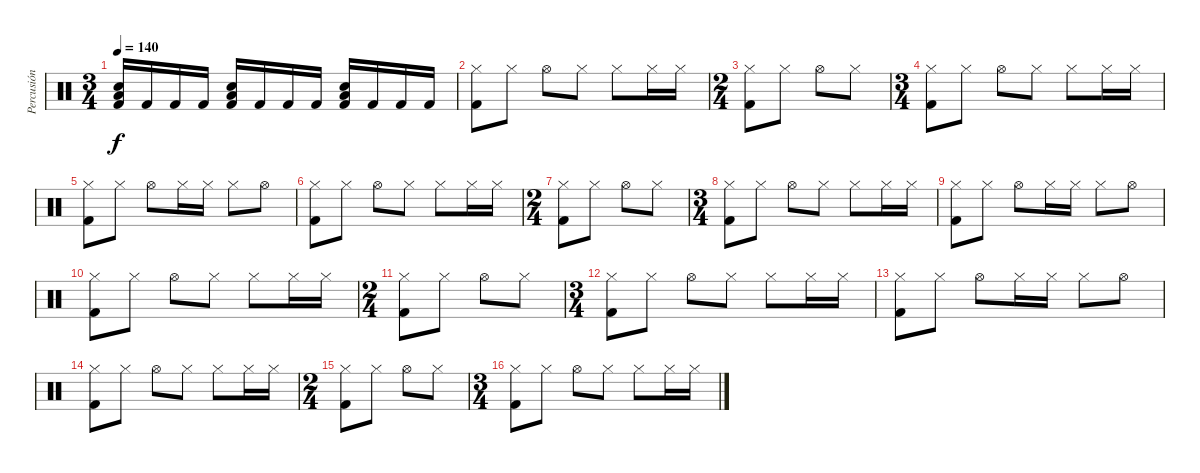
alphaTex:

\track ("Percusión" "Percusión") {instrument percussion}
\staff {score}
\articulation defaults
\ts (3 4)
\tempo 140
\clef neutral
\ks c
("Low Tom (hit)" "Electric Snare (hit)" "Kick (hit) 2").16{dy f} "Kick (hit) 2".16 "Kick (hit) 2".16 "Kick (hit) 2".16 ("Low Tom (hit)" "Electric Snare (hit)" "Kick (hit) 2").16 "Kick (hit) 2".16 "Kick (hit) 2".16 "Kick (hit) 2".16 ("Low Tom (hit)" "Electric Snare (hit)" "Kick (hit) 2").16 "Kick (hit) 2".16 "Kick (hit) 2".16 "Kick (hit) 2".16 |
("Hi-Hat (closed)" "Kick (hit) 2").8 "Hi-Hat (closed)".8 "Hi-Hat (open)".8 "Hi-Hat (closed)".8 "Hi-Hat (closed)".8 "Hi-Hat (closed)".16 "Hi-Hat (closed)".16 |
\ts (2 4)
("Hi-Hat (closed)" "Kick (hit) 2").8 "Hi-Hat (closed)".8 "Hi-Hat (open)".8 "Hi-Hat (closed)".8 |
\ts (3 4)
("Hi-Hat (closed)" "Kick (hit) 2").8 "Hi-Hat (closed)".8 "Hi-Hat (open)".8 "Hi-Hat (closed)".8 "Hi-Hat (closed)".8 "Hi-Hat (closed)".16 "Hi-Hat (closed)".16 |
("Hi-Hat (closed)" "Kick (hit) 2").8 "Hi-Hat (closed)".8 "Hi-Hat (open)".8 "Hi-Hat (closed)".16 "Hi-Hat (closed)".16 "Hi-Hat (closed)".8 "Hi-Hat (open)".8 |
("Hi-Hat (closed)" "Kick (hit) 2").8 "Hi-Hat (closed)".8 "Hi-Hat (open)".8 "Hi-Hat (closed)".8 "Hi-Hat (closed)".8 "Hi-Hat (closed)".16 "Hi-Hat (closed)".16 |
\ts (2 4)
("Hi-Hat (closed)" "Kick (hit) 2").8 "Hi-Hat (closed)".8 "Hi-Hat (open)".8 "Hi-Hat (closed)".8 |
\ts (3 4)
("Hi-Hat (closed)" "Kick (hit) 2").8 "Hi-Hat (closed)".8 "Hi-Hat (open)".8 "Hi-Hat (closed)".8 "Hi-Hat (closed)".8 "Hi-Hat (closed)".16 "Hi-Hat (closed)".16 |
("Hi-Hat (closed)" "Kick (hit) 2").8 "Hi-Hat (closed)".8 "Hi-Hat (open)".8 "Hi-Hat (closed)".16 "Hi-Hat (closed)".16 "Hi-Hat (closed)".8 "Hi-Hat (open)".8 |
("Hi-Hat (closed)" "Kick (hit) 2").8 "Hi-Hat (closed)".8 "Hi-Hat (open)".8 "Hi-Hat (closed)".8 "Hi-Hat (closed)".8 "Hi-Hat (closed)".16 "Hi-Hat (closed)".16 |
\ts (2 4)
("Hi-Hat (closed)" "Kick (hit) 2").8 "Hi-Hat (closed)".8 "Hi-Hat (open)".8 "Hi-Hat (closed)".8 |
\ts (3 4)
("Hi-Hat (closed)" "Kick (hit) 2").8 "Hi-Hat (closed)".8 "Hi-Hat (open)".8 "Hi-Hat (closed)".8 "Hi-Hat (closed)".8 "Hi-Hat (closed)".16 "Hi-Hat (closed)".16 |
("Hi-Hat (closed)" "Kick (hit) 2").8 "Hi-Hat (closed)".8 "Hi-Hat (open)".8 "Hi-Hat (closed)".16 "Hi-Hat (closed)".16 "Hi-Hat (closed)".8 "Hi-Hat (open)".8 |
("Hi-Hat (closed)" "Kick (hit) 2").8 "Hi-Hat (closed)".8 "Hi-Hat (open)".8 "Hi-Hat (closed)".8 "Hi-Hat (closed)".8 "Hi-Hat (closed)".16 "Hi-Hat (closed)".16 |
\ts (2 4)
("Hi-Hat (closed)" "Kick (hit) 2").8 "Hi-Hat (closed)".8 "Hi-Hat (open)".8 "Hi-Hat (closed)".8 |
\ts (3 4)
("Hi-Hat (closed)" "Kick (hit) 2").8 "Hi-Hat (closed)".8 "Hi-Hat (open)".8 "Hi-Hat (closed)".8 "Hi-Hat (closed)".8 "Hi-Hat (closed)".16 "Hi-Hat (closed)".16
